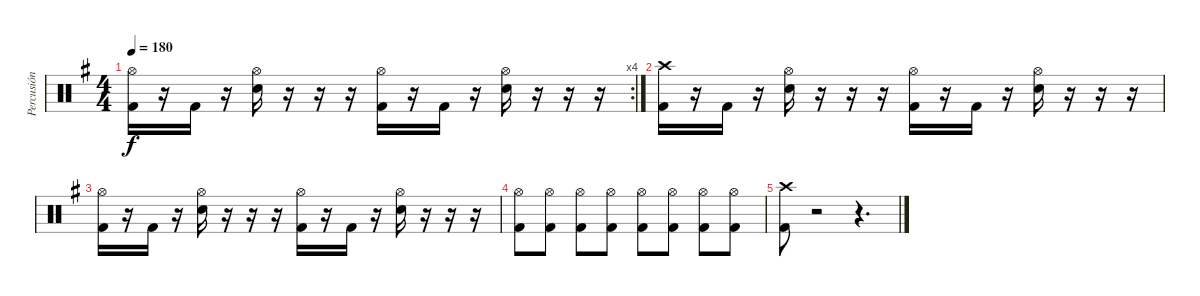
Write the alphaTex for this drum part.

\track ("Percusión" "Percusión") {instrument percussion}
\staff {score}
\articulation defaults
\rc 4
\ts (4 4)
\tempo 180
\clef neutral
\ks g
("Hi-Hat (open)" "Kick (hit) 2").16{dy f} r.16 "Kick (hit) 2".16 r.16 ("Hi-Hat (open)" "Snare (hit) 2").16 r.16 r.16 r.16 ("Hi-Hat (open)" "Kick (hit) 2").16 r.16 "Kick (hit) 2".16 r.16 ("Hi-Hat (open)" "Snare (hit) 2").16 r.16 r.16 r.16 |
("Crash high (hit)" "Kick (hit) 2").16 r.16 "Kick (hit) 2".16 r.16 ("Hi-Hat (open)" "Snare (hit) 2").16 r.16 r.16 r.16 ("Hi-Hat (open)" "Kick (hit) 2").16 r.16 "Kick (hit) 2".16 r.16 ("Hi-Hat (open)" "Snare (hit) 2").16 r.16 r.16 r.16 |
("Hi-Hat (open)" "Kick (hit) 2").16 r.16 "Kick (hit) 2".16 r.16 ("Hi-Hat (open)" "Snare (hit) 2").16 r.16 r.16 r.16 ("Hi-Hat (open)" "Kick (hit) 2").16 r.16 "Kick (hit) 2".16 r.16 ("Hi-Hat (open)" "Snare (hit) 2").16 r.16 r.16 r.16 |
("Hi-Hat (open)" "Kick (hit) 2").8 ("Hi-Hat (open)" "Kick (hit) 2").8 ("Hi-Hat (open)" "Kick (hit) 2").8 ("Hi-Hat (open)" "Kick (hit) 2").8 ("Hi-Hat (open)" "Kick (hit) 2").8 ("Hi-Hat (open)" "Kick (hit) 2").8 ("Hi-Hat (open)" "Kick (hit) 2").8 ("Hi-Hat (open)" "Kick (hit) 2").8 |
("Crash high (hit)" "Kick (hit) 2").8 r.2 r.4{d}
